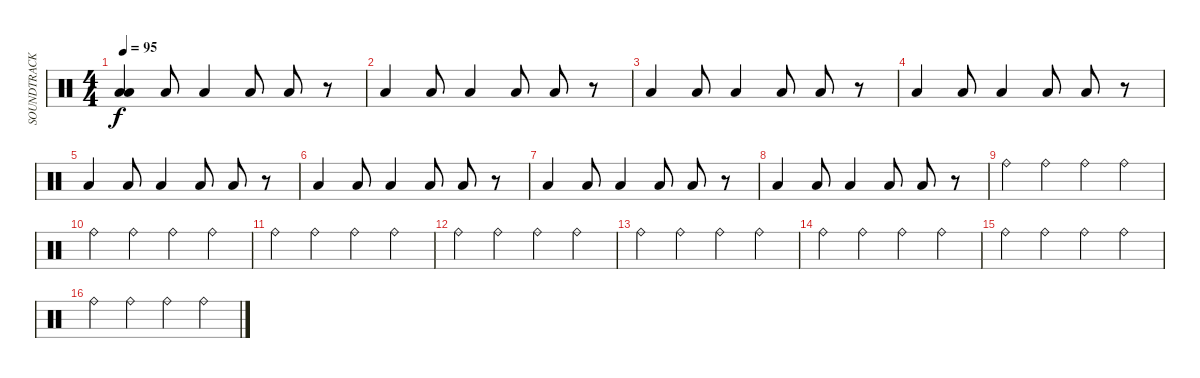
\track ("SOUNDTRACK" "SOUNDTRACK") {instrument percussion}
\staff {score}
\articulation defaults
\ts (4 4)
\tempo 95
\clef neutral
\ks c
("Low Floor Tom (hit)" "Low Tom (hit)").4{dy f} "Low Tom (hit)".8 "Low Floor Tom (hit)".4 "Low Floor Tom (hit)".8 "Low Floor Tom (hit)".8 r.8 |
"Low Floor Tom (hit)".4 "Low Tom (hit)".8 "Low Floor Tom (hit)".4 "Low Floor Tom (hit)".8 "Low Floor Tom (hit)".8 r.8 |
"Low Floor Tom (hit)".4 "Low Tom (hit)".8 "Low Floor Tom (hit)".4 "Low Floor Tom (hit)".8 "Low Floor Tom (hit)".8 r.8 |
"Low Floor Tom (hit)".4 "Low Tom (hit)".8 "Low Floor Tom (hit)".4 "Low Floor Tom (hit)".8 "Low Floor Tom (hit)".8 r.8 |
"Low Floor Tom (hit)".4 "Low Tom (hit)".8 "Low Floor Tom (hit)".4 "Low Floor Tom (hit)".8 "Low Floor Tom (hit)".8 r.8 |
"Low Floor Tom (hit)".4 "Low Tom (hit)".8 "Low Floor Tom (hit)".4 "Low Floor Tom (hit)".8 "Low Floor Tom (hit)".8 r.8 |
"Low Floor Tom (hit)".4 "Low Tom (hit)".8 "Low Floor Tom (hit)".4 "Low Floor Tom (hit)".8 "Low Floor Tom (hit)".8 r.8 |
"Low Floor Tom (hit)".4 "Low Tom (hit)".8 "Low Floor Tom (hit)".4 "Low Floor Tom (hit)".8 "Low Floor Tom (hit)".8 r.8 |
"Ride (bell)".4{volume 14} "Ride (bell)".4 "Ride (bell)".4 "Ride (bell)".4 |
"Ride (bell)".4 "Ride (bell)".4 "Ride (bell)".4 "Ride (bell)".4 |
"Ride (bell)".4 "Ride (bell)".4 "Ride (bell)".4 "Ride (bell)".4 |
"Ride (bell)".4 "Ride (bell)".4 "Ride (bell)".4 "Ride (bell)".4 |
"Ride (bell)".4 "Ride (bell)".4 "Ride (bell)".4 "Ride (bell)".4 |
"Ride (bell)".4 "Ride (bell)".4 "Ride (bell)".4 "Ride (bell)".4 |
"Ride (bell)".4 "Ride (bell)".4 "Ride (bell)".4 "Ride (bell)".4 |
"Ride (bell)".4 "Ride (bell)".4 "Ride (bell)".4 "Ride (bell)".4
